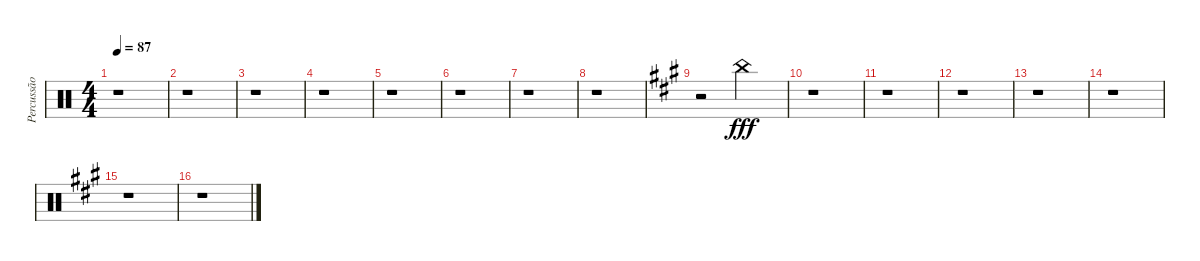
\track ("Percussão" "Percussão") {instrument percussion}
\staff {score}
\articulation defaults
\ts (4 4)
\tempo 87
\clef neutral
\ks c
r.1{dy fff} |
r.1 |
r.1 |
r.1 |
r.1 |
r.1 |
r.1 |
r.1 |
\ks a
r.2 "China (hit)".2 |
r.1 |
r.1 |
r.1 |
r.1 |
r.1 |
r.1 |
r.1
